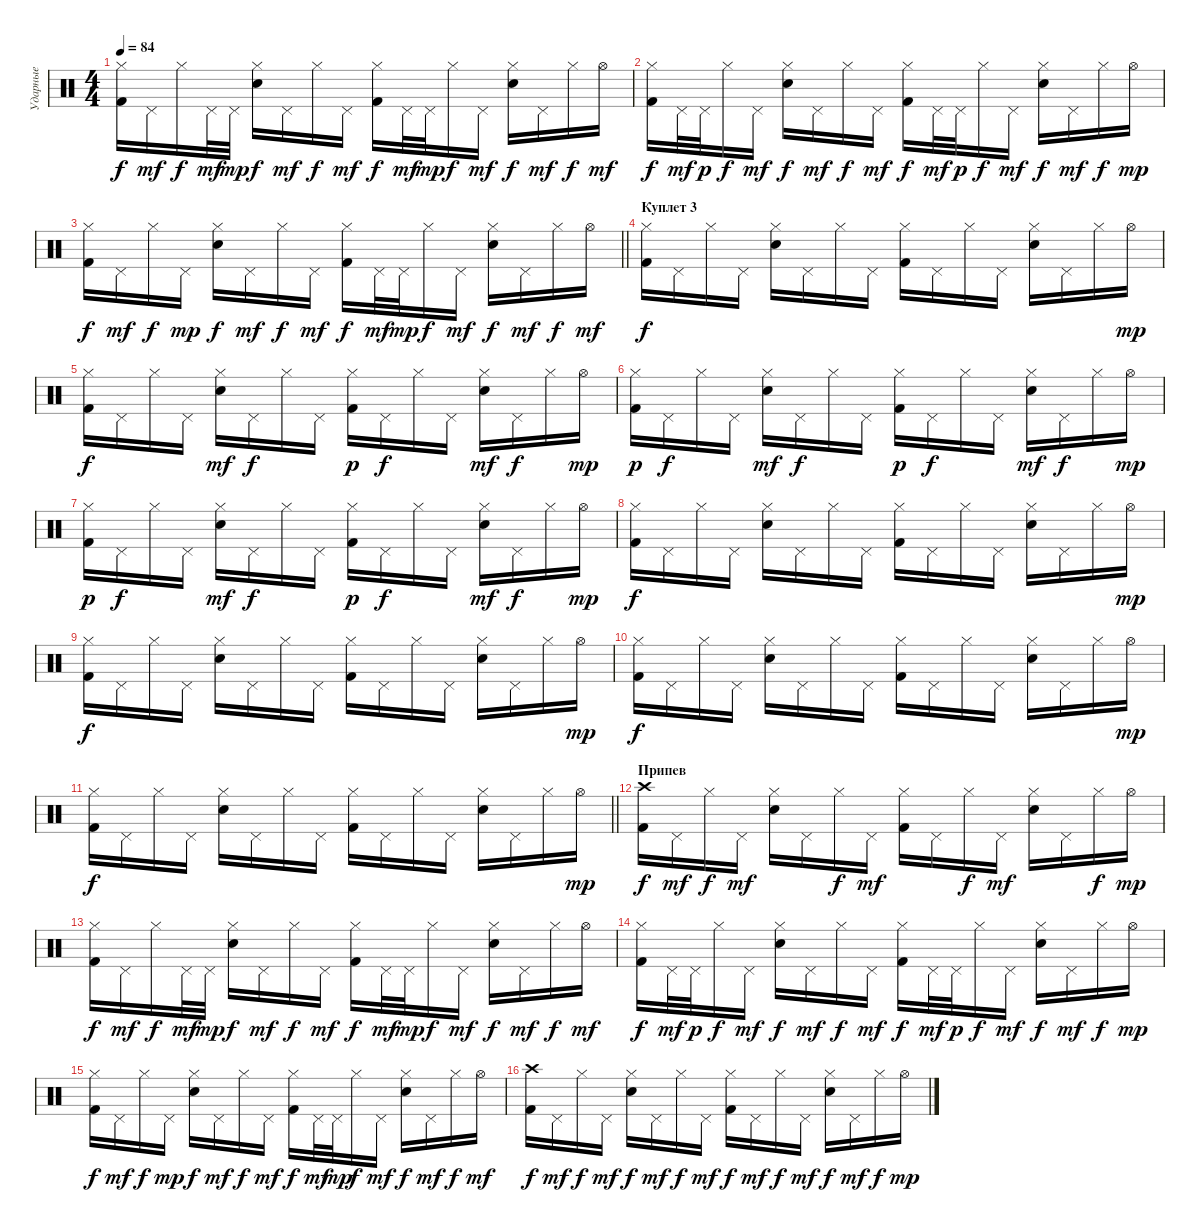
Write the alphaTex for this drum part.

\track ("Ударные" "Ударные") {instrument percussion}
\staff {score}
\articulation defaults
\ts (4 4)
\tempo 84
\clef neutral
\ks c
("Hi-Hat (closed)" "Kick (hit) 2").16{dy f} "Pedal Hi-Hat (hit)".16{dy mf} "Hi-Hat (closed)".16{dy f} "Pedal Hi-Hat (hit)".32{dy mf} "Pedal Hi-Hat (hit)".32{dy mp} ("Hi-Hat (closed)" "Electric Snare (hit)").16{dy f} "Pedal Hi-Hat (hit)".16{dy mf} "Hi-Hat (closed)".16{dy f} "Pedal Hi-Hat (hit)".16{dy mf} ("Hi-Hat (closed)" "Kick (hit) 2").16{dy f} "Pedal Hi-Hat (hit)".32{dy mf} "Pedal Hi-Hat (hit)".32{dy mp} "Hi-Hat (closed)".16{dy f} "Pedal Hi-Hat (hit)".16{dy mf} ("Hi-Hat (closed)" "Electric Snare (hit)").16{dy f} "Pedal Hi-Hat (hit)".16{dy mf} "Hi-Hat (closed)".16{dy f} "Hi-Hat (open)".16{dy mf} |
("Hi-Hat (closed)" "Kick (hit) 2").16{dy f} "Pedal Hi-Hat (hit)".32{dy mf} "Pedal Hi-Hat (hit)".32{dy p} "Hi-Hat (closed)".16{dy f} "Pedal Hi-Hat (hit)".16{dy mf} ("Hi-Hat (closed)" "Electric Snare (hit)").16{dy f} "Pedal Hi-Hat (hit)".16{dy mf} "Hi-Hat (closed)".16{dy f} "Pedal Hi-Hat (hit)".16{dy mf} ("Hi-Hat (closed)" "Kick (hit) 2").16{dy f} "Pedal Hi-Hat (hit)".32{dy mf} "Pedal Hi-Hat (hit)".32{dy p} "Hi-Hat (closed)".16{dy f} "Pedal Hi-Hat (hit)".16{dy mf} ("Hi-Hat (closed)" "Electric Snare (hit)").16{dy f} "Pedal Hi-Hat (hit)".16{dy mf} "Hi-Hat (closed)".16{dy f} "Hi-Hat (open)".16{dy mp} |
\barLineRight lightlight
("Hi-Hat (closed)" "Kick (hit) 2").16{dy f} "Pedal Hi-Hat (hit)".16{dy mf} "Hi-Hat (closed)".16{dy f} "Pedal Hi-Hat (hit)".16{dy mp} ("Hi-Hat (closed)" "Electric Snare (hit)").16{dy f} "Pedal Hi-Hat (hit)".16{dy mf} "Hi-Hat (closed)".16{dy f} "Pedal Hi-Hat (hit)".16{dy mf} ("Hi-Hat (closed)" "Kick (hit) 2").16{dy f} "Pedal Hi-Hat (hit)".32{dy mf} "Pedal Hi-Hat (hit)".32{dy mp} "Hi-Hat (closed)".16{dy f} "Pedal Hi-Hat (hit)".16{dy mf} ("Hi-Hat (closed)" "Electric Snare (hit)").16{dy f} "Pedal Hi-Hat (hit)".16{dy mf} "Hi-Hat (closed)".16{dy f} "Hi-Hat (open)".16{dy mf} |
\section ("" "Куплет 3")
("Hi-Hat (closed)" "Kick (hit) 2").16{dy f} "Pedal Hi-Hat (hit)".16 "Hi-Hat (closed)".16 "Pedal Hi-Hat (hit)".16 ("Hi-Hat (closed)" "Electric Snare (hit)").16 "Pedal Hi-Hat (hit)".16 "Hi-Hat (closed)".16 "Pedal Hi-Hat (hit)".16 ("Hi-Hat (closed)" "Kick (hit) 2").16 "Pedal Hi-Hat (hit)".16 "Hi-Hat (closed)".16 "Pedal Hi-Hat (hit)".16 ("Hi-Hat (closed)" "Electric Snare (hit)").16 "Pedal Hi-Hat (hit)".16 "Hi-Hat (closed)".16 "Hi-Hat (open)".16{dy mp} |
("Hi-Hat (closed)" "Kick (hit) 2").16{dy f} "Pedal Hi-Hat (hit)".16 "Hi-Hat (closed)".16 "Pedal Hi-Hat (hit)".16 ("Hi-Hat (closed)" "Snare (hit) 2").16{dy mf} "Pedal Hi-Hat (hit)".16{dy f} "Hi-Hat (closed)".16 "Pedal Hi-Hat (hit)".16 ("Hi-Hat (closed)" "Kick (hit) 2").16{dy p} "Pedal Hi-Hat (hit)".16{dy f} "Hi-Hat (closed)".16 "Pedal Hi-Hat (hit)".16 ("Hi-Hat (closed)" "Snare (hit) 2").16{dy mf} "Pedal Hi-Hat (hit)".16{dy f} "Hi-Hat (closed)".16 "Hi-Hat (open)".16{dy mp} |
("Hi-Hat (closed)" "Kick (hit) 2").16{dy p} "Pedal Hi-Hat (hit)".16{dy f} "Hi-Hat (closed)".16 "Pedal Hi-Hat (hit)".16 ("Hi-Hat (closed)" "Snare (hit) 2").16{dy mf} "Pedal Hi-Hat (hit)".16{dy f} "Hi-Hat (closed)".16 "Pedal Hi-Hat (hit)".16 ("Hi-Hat (closed)" "Kick (hit) 2").16{dy p} "Pedal Hi-Hat (hit)".16{dy f} "Hi-Hat (closed)".16 "Pedal Hi-Hat (hit)".16 ("Hi-Hat (closed)" "Snare (hit) 2").16{dy mf} "Pedal Hi-Hat (hit)".16{dy f} "Hi-Hat (closed)".16 "Hi-Hat (open)".16{dy mp} |
("Hi-Hat (closed)" "Kick (hit) 2").16{dy p} "Pedal Hi-Hat (hit)".16{dy f} "Hi-Hat (closed)".16 "Pedal Hi-Hat (hit)".16 ("Hi-Hat (closed)" "Snare (hit) 2").16{dy mf} "Pedal Hi-Hat (hit)".16{dy f} "Hi-Hat (closed)".16 "Pedal Hi-Hat (hit)".16 ("Hi-Hat (closed)" "Kick (hit) 2").16{dy p} "Pedal Hi-Hat (hit)".16{dy f} "Hi-Hat (closed)".16 "Pedal Hi-Hat (hit)".16 ("Hi-Hat (closed)" "Snare (hit) 2").16{dy mf} "Pedal Hi-Hat (hit)".16{dy f} "Hi-Hat (closed)".16 "Hi-Hat (open)".16{dy mp} |
("Hi-Hat (closed)" "Kick (hit) 2").16{dy f} "Pedal Hi-Hat (hit)".16 "Hi-Hat (closed)".16 "Pedal Hi-Hat (hit)".16 ("Hi-Hat (closed)" "Snare (hit) 2").16 "Pedal Hi-Hat (hit)".16 "Hi-Hat (closed)".16 "Pedal Hi-Hat (hit)".16 ("Hi-Hat (closed)" "Kick (hit) 2").16 "Pedal Hi-Hat (hit)".16 "Hi-Hat (closed)".16 "Pedal Hi-Hat (hit)".16 ("Hi-Hat (closed)" "Snare (hit) 2").16 "Pedal Hi-Hat (hit)".16 "Hi-Hat (closed)".16 "Hi-Hat (open)".16{dy mp} |
("Hi-Hat (closed)" "Kick (hit) 2").16{dy f} "Pedal Hi-Hat (hit)".16 "Hi-Hat (closed)".16 "Pedal Hi-Hat (hit)".16 ("Hi-Hat (closed)" "Snare (hit) 2").16 "Pedal Hi-Hat (hit)".16 "Hi-Hat (closed)".16 "Pedal Hi-Hat (hit)".16 ("Hi-Hat (closed)" "Kick (hit) 2").16 "Pedal Hi-Hat (hit)".16 "Hi-Hat (closed)".16 "Pedal Hi-Hat (hit)".16 ("Hi-Hat (closed)" "Snare (hit) 2").16 "Pedal Hi-Hat (hit)".16 "Hi-Hat (closed)".16 "Hi-Hat (open)".16{dy mp} |
("Hi-Hat (closed)" "Kick (hit) 2").16{dy f} "Pedal Hi-Hat (hit)".16 "Hi-Hat (closed)".16 "Pedal Hi-Hat (hit)".16 ("Hi-Hat (closed)" "Snare (hit) 2").16 "Pedal Hi-Hat (hit)".16 "Hi-Hat (closed)".16 "Pedal Hi-Hat (hit)".16 ("Hi-Hat (closed)" "Kick (hit) 2").16 "Pedal Hi-Hat (hit)".16 "Hi-Hat (closed)".16 "Pedal Hi-Hat (hit)".16 ("Hi-Hat (closed)" "Snare (hit) 2").16 "Pedal Hi-Hat (hit)".16 "Hi-Hat (closed)".16 "Hi-Hat (open)".16{dy mp} |
\barLineRight lightlight
("Hi-Hat (closed)" "Kick (hit) 2").16{dy f} "Pedal Hi-Hat (hit)".16 "Hi-Hat (closed)".16 "Pedal Hi-Hat (hit)".16 ("Hi-Hat (closed)" "Snare (hit) 2").16 "Pedal Hi-Hat (hit)".16 "Hi-Hat (closed)".16 "Pedal Hi-Hat (hit)".16 ("Hi-Hat (closed)" "Kick (hit) 2").16 "Pedal Hi-Hat (hit)".16 "Hi-Hat (closed)".16 "Pedal Hi-Hat (hit)".16 ("Hi-Hat (closed)" "Snare (hit) 2").16 "Pedal Hi-Hat (hit)".16 "Hi-Hat (closed)".16 "Hi-Hat (open)".16{dy mp} |
\section ("" "Припев")
("Crash high (hit)" "Kick (hit) 2").16{dy f} "Pedal Hi-Hat (hit)".16{dy mf} "Hi-Hat (closed)".16{dy f} "Pedal Hi-Hat (hit)".16{dy mf} ("Hi-Hat (closed)" "Electric Snare (hit)").16 "Pedal Hi-Hat (hit)".16 "Hi-Hat (closed)".16{dy f} "Pedal Hi-Hat (hit)".16{dy mf} ("Hi-Hat (closed)" "Kick (hit) 2").16 "Pedal Hi-Hat (hit)".16 "Hi-Hat (closed)".16{dy f} "Pedal Hi-Hat (hit)".16{dy mf} ("Hi-Hat (closed)" "Electric Snare (hit)").16 "Pedal Hi-Hat (hit)".16 "Hi-Hat (closed)".16{dy f} "Hi-Hat (open)".16{dy mp} |
("Hi-Hat (closed)" "Kick (hit) 2").16{dy f} "Pedal Hi-Hat (hit)".16{dy mf} "Hi-Hat (closed)".16{dy f} "Pedal Hi-Hat (hit)".32{dy mf} "Pedal Hi-Hat (hit)".32{dy mp} ("Hi-Hat (closed)" "Electric Snare (hit)").16{dy f} "Pedal Hi-Hat (hit)".16{dy mf} "Hi-Hat (closed)".16{dy f} "Pedal Hi-Hat (hit)".16{dy mf} ("Hi-Hat (closed)" "Kick (hit) 2").16{dy f} "Pedal Hi-Hat (hit)".32{dy mf} "Pedal Hi-Hat (hit)".32{dy mp} "Hi-Hat (closed)".16{dy f} "Pedal Hi-Hat (hit)".16{dy mf} ("Hi-Hat (closed)" "Electric Snare (hit)").16{dy f} "Pedal Hi-Hat (hit)".16{dy mf} "Hi-Hat (closed)".16{dy f} "Hi-Hat (open)".16{dy mf} |
("Hi-Hat (closed)" "Kick (hit) 2").16{dy f} "Pedal Hi-Hat (hit)".32{dy mf} "Pedal Hi-Hat (hit)".32{dy p} "Hi-Hat (closed)".16{dy f} "Pedal Hi-Hat (hit)".16{dy mf} ("Hi-Hat (closed)" "Electric Snare (hit)").16{dy f} "Pedal Hi-Hat (hit)".16{dy mf} "Hi-Hat (closed)".16{dy f} "Pedal Hi-Hat (hit)".16{dy mf} ("Hi-Hat (closed)" "Kick (hit) 2").16{dy f} "Pedal Hi-Hat (hit)".32{dy mf} "Pedal Hi-Hat (hit)".32{dy p} "Hi-Hat (closed)".16{dy f} "Pedal Hi-Hat (hit)".16{dy mf} ("Hi-Hat (closed)" "Electric Snare (hit)").16{dy f} "Pedal Hi-Hat (hit)".16{dy mf} "Hi-Hat (closed)".16{dy f} "Hi-Hat (open)".16{dy mp} |
("Hi-Hat (closed)" "Kick (hit) 2").16{dy f} "Pedal Hi-Hat (hit)".16{dy mf} "Hi-Hat (closed)".16{dy f} "Pedal Hi-Hat (hit)".16{dy mp} ("Hi-Hat (closed)" "Electric Snare (hit)").16{dy f} "Pedal Hi-Hat (hit)".16{dy mf} "Hi-Hat (closed)".16{dy f} "Pedal Hi-Hat (hit)".16{dy mf} ("Hi-Hat (closed)" "Kick (hit) 2").16{dy f} "Pedal Hi-Hat (hit)".32{dy mf} "Pedal Hi-Hat (hit)".32{dy mp} "Hi-Hat (closed)".16{dy f} "Pedal Hi-Hat (hit)".16{dy mf} ("Hi-Hat (closed)" "Electric Snare (hit)").16{dy f} "Pedal Hi-Hat (hit)".16{dy mf} "Hi-Hat (closed)".16{dy f} "Hi-Hat (open)".16{dy mf} |
("Crash high (hit)" "Kick (hit) 2").16{dy f} "Pedal Hi-Hat (hit)".16{dy mf} "Hi-Hat (closed)".16{dy f} "Pedal Hi-Hat (hit)".16{dy mf} ("Hi-Hat (closed)" "Electric Snare (hit)").16{dy f} "Pedal Hi-Hat (hit)".16{dy mf} "Hi-Hat (closed)".16{dy f} "Pedal Hi-Hat (hit)".16{dy mf} ("Hi-Hat (closed)" "Kick (hit) 2").16{dy f} "Pedal Hi-Hat (hit)".16{dy mf} "Hi-Hat (closed)".16{dy f} "Pedal Hi-Hat (hit)".16{dy mf} ("Hi-Hat (closed)" "Electric Snare (hit)").16{dy f} "Pedal Hi-Hat (hit)".16{dy mf} "Hi-Hat (closed)".16{dy f} "Hi-Hat (open)".16{dy mp}
